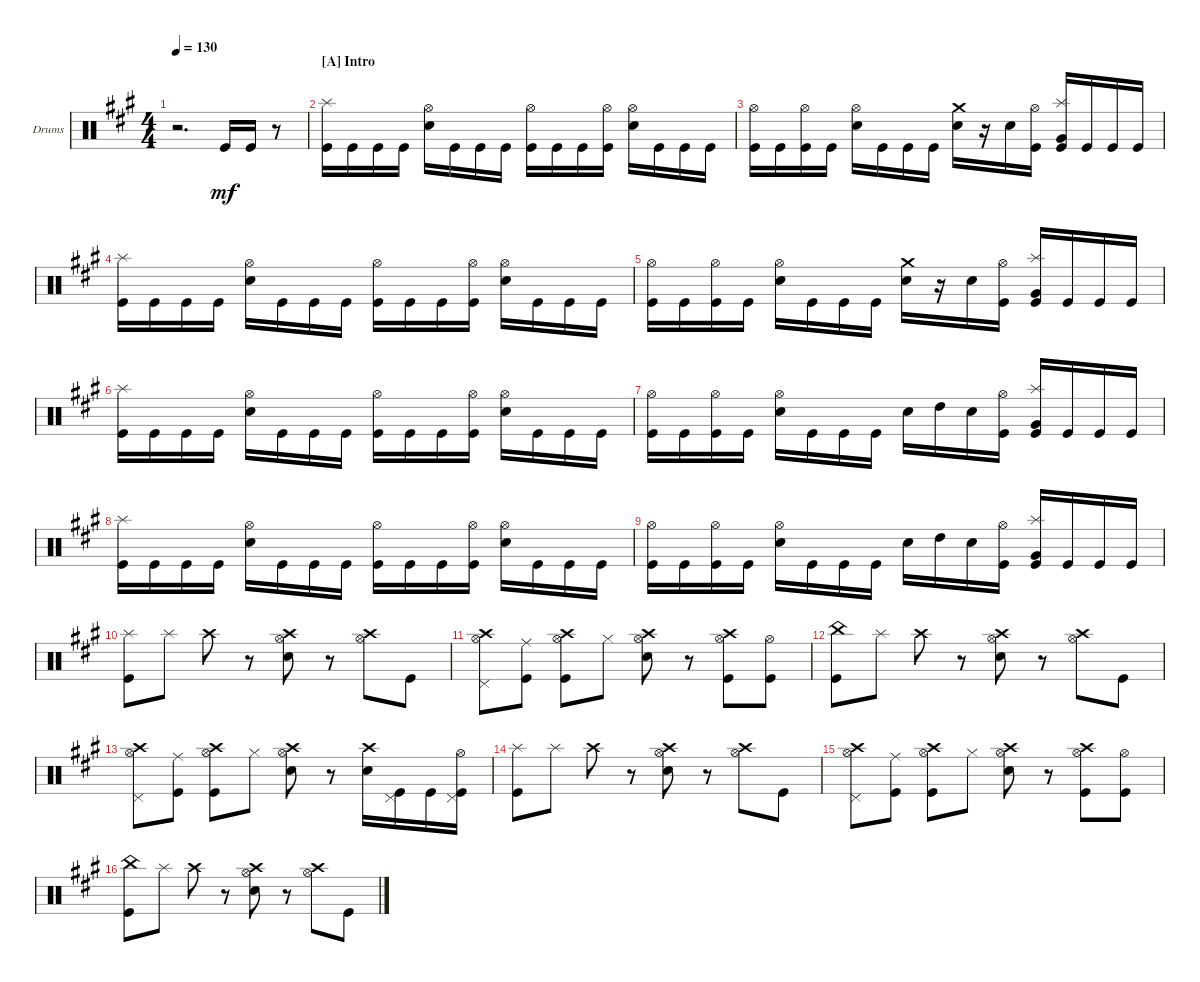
\defaultSystemsLayout 4
\bracketExtendMode groupsimilarinstruments
\firstSystemTrackNameOrientation horizontal
\otherSystemsTrackNameOrientation horizontal
\track ("Bateria" "Drums") {instrument percussion}
\staff {score}
\articulation defaults
\ts (4 4)
\tempo 130
\clef neutral
\ks a
r.2{d dy mf} "Kick (hit)".16 "Kick (hit)".16 r.8 |
\section ("A" "Intro")
("Kick (hit)" "Splash (hit)").16 "Kick (hit)".16 "Kick (hit)".16 "Kick (hit)".16 ("Snare (hit) 2" "Hi-Hat (open)").16 "Kick (hit)".16 "Kick (hit)".16 "Kick (hit)".16 ("Kick (hit)" "Hi-Hat (open)").16 "Kick (hit)".16 "Kick (hit)".16 ("Kick (hit)" "Hi-Hat (open)").16 ("Snare (hit) 2" "Hi-Hat (open)").16 "Kick (hit)".16 "Kick (hit)".16 "Kick (hit)".16 |
("Kick (hit)" "Hi-Hat (open)").16 "Kick (hit)".16 ("Kick (hit)" "Hi-Hat (open)").16 "Kick (hit)".16 ("Snare (hit) 2" "Hi-Hat (open)").16 "Kick (hit)".16 "Kick (hit)".16 "Kick (hit)".16 ("Snare (hit) 2" "Crash medium (hit)").16 r.16 "Snare (hit) 2".16 ("Kick (hit)" "Hi-Hat (open)").16 ("Very Low Tom (hit)" "Splash (hit)" "Kick (hit)").16 "Kick (hit)".16 "Kick (hit)".16 "Kick (hit)".16 |
("Kick (hit)" "Splash (hit)").16 "Kick (hit)".16 "Kick (hit)".16 "Kick (hit)".16 ("Snare (hit) 2" "Hi-Hat (open)").16 "Kick (hit)".16 "Kick (hit)".16 "Kick (hit)".16 ("Kick (hit)" "Hi-Hat (open)").16 "Kick (hit)".16 "Kick (hit)".16 ("Kick (hit)" "Hi-Hat (open)").16 ("Snare (hit) 2" "Hi-Hat (open)").16 "Kick (hit)".16 "Kick (hit)".16 "Kick (hit)".16 |
("Kick (hit)" "Hi-Hat (open)").16 "Kick (hit)".16 ("Kick (hit)" "Hi-Hat (open)").16 "Kick (hit)".16 ("Snare (hit) 2" "Hi-Hat (open)").16 "Kick (hit)".16 "Kick (hit)".16 "Kick (hit)".16 ("Snare (hit) 2" "Crash medium (hit)").16 r.16 "Snare (hit) 2".16 ("Kick (hit)" "Hi-Hat (open)").16 ("Very Low Tom (hit)" "Splash (hit)" "Kick (hit)").16 "Kick (hit)".16 "Kick (hit)".16 "Kick (hit)".16 |
("Kick (hit)" "Splash (hit)").16 "Kick (hit)".16 "Kick (hit)".16 "Kick (hit)".16 ("Snare (hit) 2" "Hi-Hat (open)").16 "Kick (hit)".16 "Kick (hit)".16 "Kick (hit)".16 ("Kick (hit)" "Hi-Hat (open)").16 "Kick (hit)".16 "Kick (hit)".16 ("Kick (hit)" "Hi-Hat (open)").16 ("Snare (hit) 2" "Hi-Hat (open)").16 "Kick (hit)".16 "Kick (hit)".16 "Kick (hit)".16 |
("Kick (hit)" "Hi-Hat (open)").16 "Kick (hit)".16 ("Kick (hit)" "Hi-Hat (open)").16 "Kick (hit)".16 ("Snare (hit) 2" "Hi-Hat (open)").16 "Kick (hit)".16 "Kick (hit)".16 "Kick (hit)".16 "Snare (hit) 2".16 "High Tom (hit)".16 "Snare (hit) 2".16 ("Kick (hit)" "Hi-Hat (open)").16 ("Very Low Tom (hit)" "Splash (hit)" "Kick (hit)").16 "Kick (hit)".16 "Kick (hit)".16 "Kick (hit)".16 |
("Kick (hit)" "Splash (hit)").16 "Kick (hit)".16 "Kick (hit)".16 "Kick (hit)".16 ("Snare (hit) 2" "Hi-Hat (open)").16 "Kick (hit)".16 "Kick (hit)".16 "Kick (hit)".16 ("Kick (hit)" "Hi-Hat (open)").16 "Kick (hit)".16 "Kick (hit)".16 ("Kick (hit)" "Hi-Hat (open)").16 ("Snare (hit) 2" "Hi-Hat (open)").16 "Kick (hit)".16 "Kick (hit)".16 "Kick (hit)".16 |
("Kick (hit)" "Hi-Hat (open)").16 "Kick (hit)".16 ("Kick (hit)" "Hi-Hat (open)").16 "Kick (hit)".16 ("Snare (hit) 2" "Hi-Hat (open)").16 "Kick (hit)".16 "Kick (hit)".16 "Kick (hit)".16 "Snare (hit) 2".16 "High Tom (hit)".16 "Snare (hit) 2".16 ("Kick (hit)" "Hi-Hat (open)").16 ("Very Low Tom (hit)" "Splash (hit)" "Kick (hit)").16 "Kick (hit)".16 "Kick (hit)".16 "Kick (hit)".16 |
("Kick (hit)" "Splash (hit)").8 "Splash (hit)".8 "Crash high (hit)".8 r.8 ("Snare (hit) 2" "Hi-Hat (open)" "Crash high (hit)").8 r.8 ("Hi-Hat (open)" "Crash high (hit)").8 "Kick (hit)".8 |
("Pedal Hi-Hat (hit)" "Hi-Hat (open)" "Crash high (hit)").8 ("Kick (hit)" "Ride (middle)").8 ("Kick (hit)" "Hi-Hat (open)" "Crash high (hit)").8 "Hi-Hat (closed)".8 ("Snare (hit) 2" "Hi-Hat (open)" "Crash high (hit)").8 r.8 ("Kick (hit)" "Hi-Hat (open)" "Crash high (hit)").8 ("Kick (hit)" "Hi-Hat (open)").8 |
("Kick (hit)" "China (hit)").8 "Splash (hit)".8 "Crash high (hit)".8 r.8 ("Snare (hit) 2" "Hi-Hat (open)" "Crash high (hit)").8 r.8 ("Hi-Hat (open)" "Crash high (hit)").8 "Kick (hit)".8 |
("Pedal Hi-Hat (hit)" "Hi-Hat (open)" "Crash high (hit)").8 ("Kick (hit)" "Ride (middle)").8 ("Kick (hit)" "Hi-Hat (open)" "Crash high (hit)").8 "Hi-Hat (closed)".8 ("Snare (hit) 2" "Hi-Hat (open)" "Crash high (hit)").8 r.8 ("Crash high (hit)" "Snare (hit) 2").16 ("Kick (hit)" "Pedal Hi-Hat (hit)").16 "Kick (hit)".16 ("Hi-Hat (open)" "Kick (hit)" "Pedal Hi-Hat (hit)").16 |
("Kick (hit)" "Splash (hit)").8 "Splash (hit)".8 "Crash high (hit)".8 r.8 ("Snare (hit) 2" "Hi-Hat (open)" "Crash high (hit)").8 r.8 ("Hi-Hat (open)" "Crash high (hit)").8 "Kick (hit)".8 |
("Pedal Hi-Hat (hit)" "Hi-Hat (open)" "Crash high (hit)").8 ("Kick (hit)" "Ride (middle)").8 ("Kick (hit)" "Hi-Hat (open)" "Crash high (hit)").8 "Hi-Hat (closed)".8 ("Snare (hit) 2" "Hi-Hat (open)" "Crash high (hit)").8 r.8 ("Kick (hit)" "Hi-Hat (open)" "Crash high (hit)").8 ("Kick (hit)" "Hi-Hat (open)").8 |
("Kick (hit)" "China (hit)").8 "Splash (hit)".8 "Crash high (hit)".8 r.8 ("Snare (hit) 2" "Hi-Hat (open)" "Crash high (hit)").8 r.8 ("Hi-Hat (open)" "Crash high (hit)").8 "Kick (hit)".8
